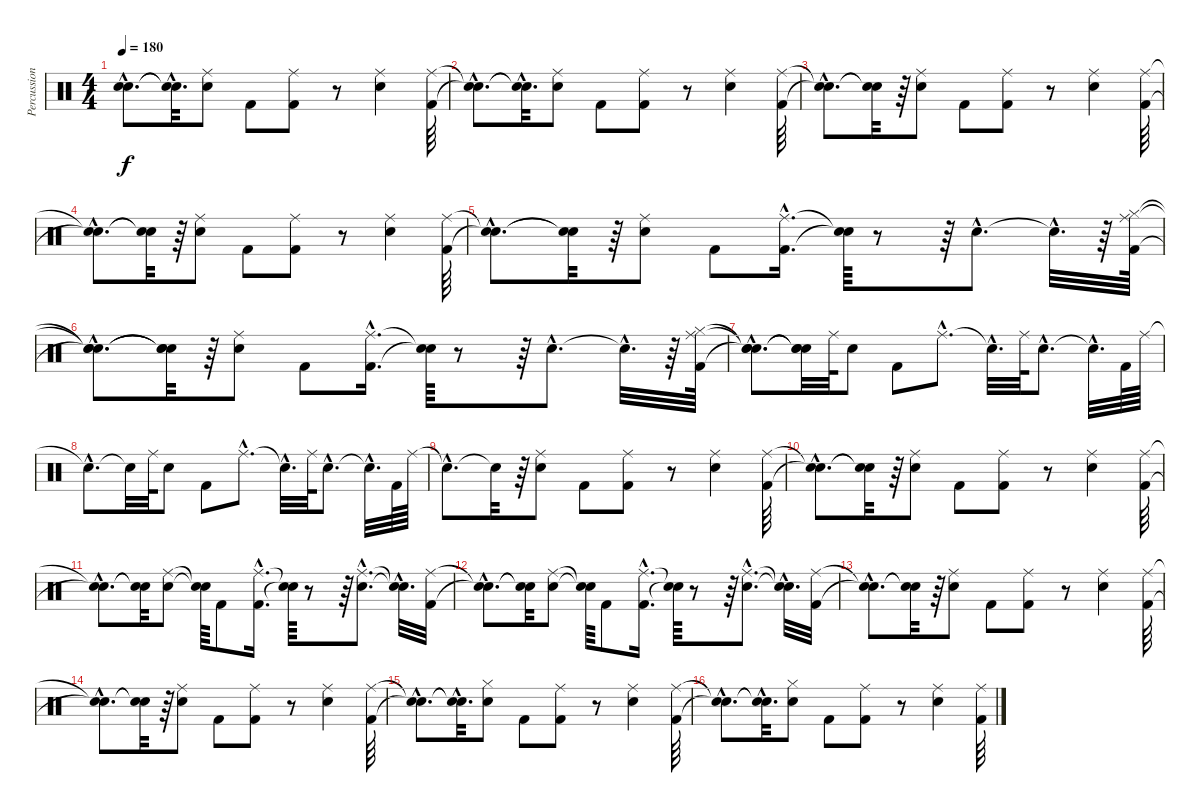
\track ("Percussion" "Percussion") {instrument percussion}
\staff {score}
\articulation defaults
\ts (4 4)
\tempo 180
\clef neutral
\ks c
("Snare (hit)"{hac t} "Snare (hit)"{hac t}).8{d dy f} ("Snare (hit)"{hac t} "Snare (hit)"{hac t}).32{d} ("Snare (hit) 2" "Ride (middle)").8 "Kick (hit) 2".8 ("Kick (hit) 2" "Ride (middle)").8 r.8 ("Ride (middle)" "Snare (hit) 2").4 ("Kick (hit) 2" "Ride (middle)").64 |
("Snare (hit)"{hac t} "Snare (hit)"{hac t}).8{d} ("Snare (hit)"{hac t} "Snare (hit)"{hac t}).32{d} ("Snare (hit) 2" "Ride (middle)").8 "Kick (hit) 2".8 ("Kick (hit) 2" "Ride (middle)").8 r.8 ("Ride (middle)" "Snare (hit) 2").4 ("Kick (hit) 2" "Ride (middle)").64 |
("Snare (hit)"{hac t} "Snare (hit)"{hac t}).8{d} ("Snare (hit)"{t} "Snare (hit)"{t}).32 r.64 ("Ride (middle)" "Snare (hit) 2").8 "Kick (hit) 2".8 ("Kick (hit) 2" "Ride (middle)").8 r.8 ("Snare (hit) 2" "Ride (middle)").4 ("Kick (hit) 2" "Ride (middle)").64 |
("Snare (hit)"{hac t} "Snare (hit)"{hac t}).8{d} ("Snare (hit)"{t} "Snare (hit)"{t}).32 r.64 ("Ride (middle)" "Snare (hit) 2").8 "Kick (hit) 2".8 ("Kick (hit) 2" "Ride (middle)").8 r.8 ("Snare (hit) 2" "Ride (middle)").4 ("Kick (hit) 2" "Ride (middle)").64 |
("Snare (hit)"{hac t} "Snare (hit)"{hac t}).8{d} ("Snare (hit)"{t} "Snare (hit)"{t}).32 r.64 ("Snare (hit) 2" "Ride (middle)").8 "Kick (hit) 2".8 ("Kick (hit) 2"{hac} "Ride (middle)"{hac}).16{d} ("Snare (hit)"{t} "Snare (hit)"{t}).64 r.8 r.64 "Snare (hit) 2"{hac}.8{d} "Snare (hit)"{hac t}.32{d} r.64 ("Ride (middle)" "Kick (hit) 2" "Hi-Hat (closed)").64 |
("Snare (hit)"{hac t} "Snare (hit)"{hac t} "Snare (hit)"{hac t}).8{d} ("Snare (hit)"{t} "Snare (hit)"{t} "Snare (hit)"{t}).32 r.64 ("Snare (hit) 2" "Ride (middle)").8 "Kick (hit) 2".8 ("Kick (hit) 2"{hac} "Ride (middle)"{hac}).16{d} ("Snare (hit)"{t} "Snare (hit)"{t}).64 r.8 r.64 "Snare (hit) 2"{hac}.8{d} "Snare (hit)"{hac t}.32{d} r.64 ("Ride (middle)" "Kick (hit) 2" "Hi-Hat (closed)").64 |
("Snare (hit)"{hac t} "Snare (hit)"{hac t} "Snare (hit)"{hac t}).8{d} ("Snare (hit)"{t} "Snare (hit)"{t} "Snare (hit)"{t}).32 "Ride (middle)".64 "Snare (hit) 2".8 "Kick (hit) 2".8 "Ride (middle)"{hac}.8{d} "Snare (hit)"{hac t}.32{d} "Ride (middle)".64 "Snare (hit) 2"{hac}.8{d} "Snare (hit)"{hac t}.32{d} "Kick (hit) 2".64 "Ride (middle)".64 |
"Snare (hit)"{hac t}.8{d} "Snare (hit)"{t}.32 "Ride (middle)".64 "Snare (hit) 2".8 "Kick (hit) 2".8 "Ride (middle)"{hac}.8{d} "Snare (hit)"{hac t}.32{d} "Ride (middle)".64 "Snare (hit) 2"{hac}.8{d} "Snare (hit)"{hac t}.32{d} "Kick (hit) 2".64 "Ride (middle)".64 |
"Snare (hit)"{hac t}.8{d} "Snare (hit)"{t}.32 r.64 ("Ride (middle)" "Snare (hit) 2").8 "Kick (hit) 2".8 ("Kick (hit) 2" "Ride (middle)").8 r.8 ("Snare (hit) 2" "Ride (middle)").4 ("Kick (hit) 2" "Ride (middle)").64 |
("Snare (hit)"{hac t} "Snare (hit)"{hac t}).8{d} ("Snare (hit)"{t} "Snare (hit)"{t}).32 r.64 ("Ride (middle)" "Snare (hit) 2").8 "Kick (hit) 2".8 ("Kick (hit) 2" "Ride (middle)").8 r.8 ("Snare (hit) 2" "Ride (middle)").4 ("Kick (hit) 2" "Ride (middle)").64 |
("Snare (hit)"{hac t} "Snare (hit)"{hac t}).8{d} ("Snare (hit)"{t} "Snare (hit)"{t}).32 ("Ride (middle)" "Snare (hit) 2").8 ("Snare (hit)"{t} "Snare (hit)"{t}).64 "Kick (hit) 2".8 ("Kick (hit) 2"{hac} "Ride (middle)"{hac}).16{d} ("Snare (hit)"{t} "Snare (hit)"{t}).64 r.8 r.64 ("Ride (middle)"{hac} "Snare (hit) 2"{hac}).8{d} ("Snare (hit)"{hac t} "Snare (hit)"{hac t}).32{d} ("Ride (middle)" "Kick (hit) 2").32 |
("Snare (hit)"{hac t} "Snare (hit)"{hac t}).8{d} ("Snare (hit)"{t} "Snare (hit)"{t}).32 ("Ride (middle)" "Snare (hit) 2").8 ("Snare (hit)"{t} "Snare (hit)"{t}).64 "Kick (hit) 2".8 ("Kick (hit) 2"{hac} "Ride (middle)"{hac}).16{d} ("Snare (hit)"{t} "Snare (hit)"{t}).64 r.8 r.64 ("Ride (middle)"{hac} "Snare (hit) 2"{hac}).8{d} ("Snare (hit)"{hac t} "Snare (hit)"{hac t}).32{d} ("Ride (middle)" "Kick (hit) 2").32 |
("Snare (hit)"{hac t} "Snare (hit)"{hac t}).8{d} ("Snare (hit)"{t} "Snare (hit)"{t}).32 r.64 ("Ride (middle)" "Snare (hit) 2").8 "Kick (hit) 2".8 ("Kick (hit) 2" "Ride (middle)").8 r.8 ("Snare (hit) 2" "Ride (middle)").4 ("Kick (hit) 2" "Ride (middle)").64 |
("Snare (hit)"{hac t} "Snare (hit)"{hac t}).8{d} ("Snare (hit)"{t} "Snare (hit)"{t}).32 r.64 ("Ride (middle)" "Snare (hit) 2").8 "Kick (hit) 2".8 ("Kick (hit) 2" "Ride (middle)").8 r.8 ("Snare (hit) 2" "Ride (middle)").4 ("Kick (hit) 2" "Ride (middle)").64 |
("Snare (hit)"{hac t} "Snare (hit)"{hac t}).8{d} ("Snare (hit)"{hac t} "Snare (hit)"{hac t}).32{d} ("Hi-Hat (closed)" "Snare (hit) 2").8 "Kick (hit) 2".8 ("Ride (middle)" "Kick (hit) 2").8 r.8 ("Ride (middle)" "Snare (hit) 2").4 ("Ride (middle)" "Kick (hit) 2").64 |
("Snare (hit)"{hac t} "Snare (hit)"{hac t}).8{d} ("Snare (hit)"{hac t} "Snare (hit)"{hac t}).32{d} ("Hi-Hat (closed)" "Snare (hit) 2").8 "Kick (hit) 2".8 ("Ride (middle)" "Kick (hit) 2").8 r.8 ("Ride (middle)" "Snare (hit) 2").4 ("Ride (middle)" "Kick (hit) 2").64
